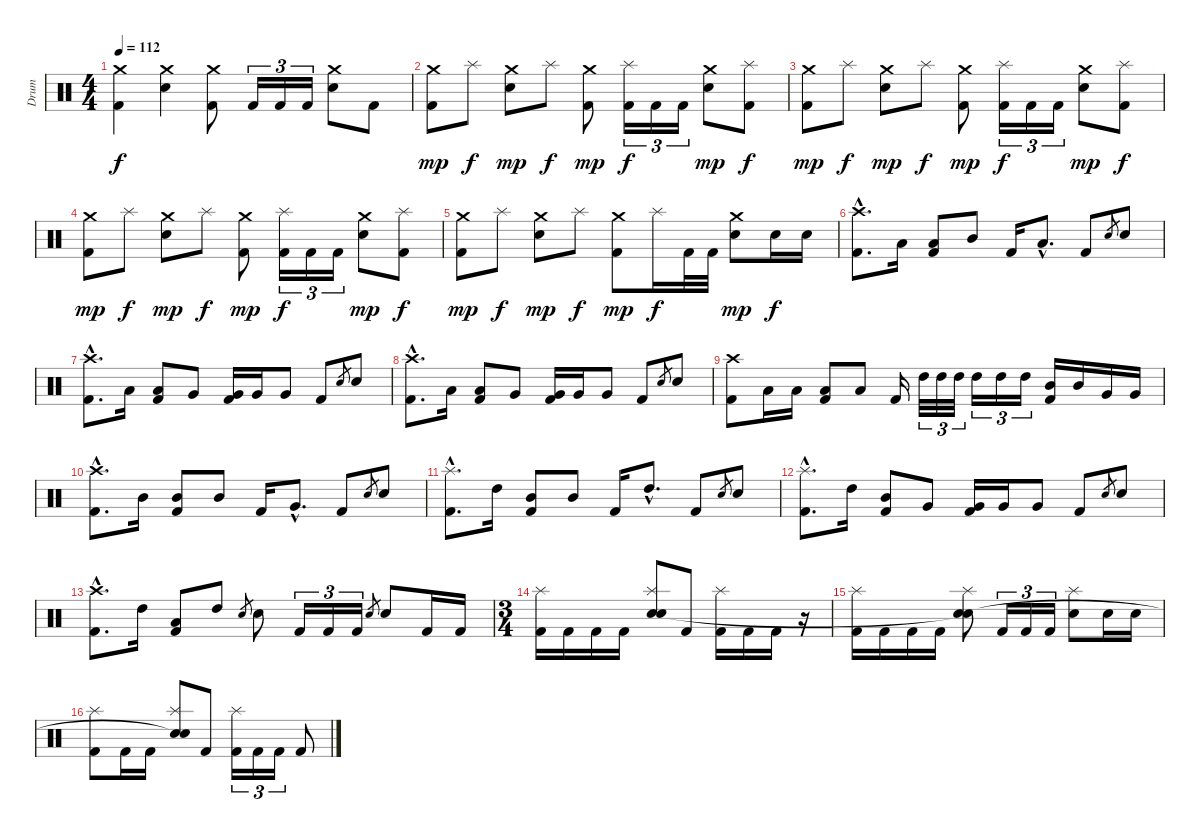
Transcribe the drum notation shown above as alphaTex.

\track ("Drum" "Drum") {instrument percussion}
\staff {score}
\articulation defaults
\ts (4 4)
\tempo 112
\clef neutral
\ks c
("Crash medium (hit)" "Kick (hit) 2").4{dy f} ("Crash medium (hit)" "Electric Snare (hit)").4 ("Crash medium (hit)" "Kick (hit) 2").8 "Kick (hit) 2".16{tu (3 2)} "Kick (hit) 2".16{tu (3 2)} "Kick (hit) 2".16{tu (3 2)} ("Crash medium (hit)" "Electric Snare (hit)").8 "Kick (hit) 2".8 |
("Crash medium (hit)" "Kick (hit) 2").8{dy mp} "Splash (hit)".8{dy f} ("Crash medium (hit)" "Electric Snare (hit)").8{dy mp} "Splash (hit)".8{dy f} ("Crash medium (hit)" "Kick (hit) 2").8{dy mp} ("Splash (hit)" "Kick (hit) 2").16{tu (3 2) dy f} "Kick (hit) 2".16{tu (3 2)} "Kick (hit) 2".16{tu (3 2)} ("Crash medium (hit)" "Electric Snare (hit)").8{dy mp} ("Splash (hit)" "Kick (hit) 2").8{dy f} |
("Crash medium (hit)" "Kick (hit) 2").8{dy mp} "Splash (hit)".8{dy f} ("Crash medium (hit)" "Electric Snare (hit)").8{dy mp} "Splash (hit)".8{dy f} ("Crash medium (hit)" "Kick (hit) 2").8{dy mp} ("Splash (hit)" "Kick (hit) 2").16{tu (3 2) dy f} "Kick (hit) 2".16{tu (3 2)} "Kick (hit) 2".16{tu (3 2)} ("Crash medium (hit)" "Electric Snare (hit)").8{dy mp} ("Splash (hit)" "Kick (hit) 2").8{dy f} |
("Crash medium (hit)" "Kick (hit) 2").8{dy mp} "Splash (hit)".8{dy f} ("Crash medium (hit)" "Electric Snare (hit)").8{dy mp} "Splash (hit)".8{dy f} ("Crash medium (hit)" "Kick (hit) 2").8{dy mp} ("Splash (hit)" "Kick (hit) 2").16{tu (3 2) dy f} "Kick (hit) 2".16{tu (3 2)} "Kick (hit) 2".16{tu (3 2)} ("Crash medium (hit)" "Electric Snare (hit)").8{dy mp} ("Splash (hit)" "Kick (hit) 2").8{dy f} |
("Crash medium (hit)" "Kick (hit) 2").8{dy mp} "Splash (hit)".8{dy f} ("Crash medium (hit)" "Electric Snare (hit)").8{dy mp} "Splash (hit)".8{dy f} ("Crash medium (hit)" "Kick (hit) 2").8{dy mp} "Splash (hit)".16{dy f} "Kick (hit) 2".32 "Kick (hit) 2".32 ("Crash medium (hit)" "Electric Snare (hit)").8{dy mp} "Electric Snare (hit)".16{dy f} "Electric Snare (hit)".16 |
("Crash high (hit)"{hac} "Kick (hit) 2"{hac}).8{d} "Low Tom (hit)".16 ("Low Tom (hit)" "Kick (hit) 2").8 "Mid Tom (hit)".8 "Kick (hit) 2".16 "Low Tom (hit)"{hac}.8{d} "Kick (hit) 2".8 "Electric Snare (hit)".8{gr} "Electric Snare (hit)".8 |
("Crash high (hit)"{hac} "Kick (hit) 2"{hac}).8{d} "Low Tom (hit)".16 ("Low Tom (hit)" "Kick (hit) 2").8 "Very Low Tom (hit)".8 ("Very Low Tom (hit)" "Kick (hit) 2").16 "Very Low Tom (hit)".16 "Very Low Tom (hit)".8 "Kick (hit) 2".8 "Electric Snare (hit)".8{gr} "Electric Snare (hit)".8 |
("Crash high (hit)"{hac} "Kick (hit) 2"{hac}).8{d} "Low Tom (hit)".16 ("Low Tom (hit)" "Kick (hit) 2").8 "Very Low Tom (hit)".8 ("Very Low Tom (hit)" "Kick (hit) 2").16 "Very Low Tom (hit)".16 "Very Low Tom (hit)".8 "Kick (hit) 2".8 "Electric Snare (hit)".8{gr} "Electric Snare (hit)".8 |
("Crash high (hit)" "Kick (hit) 2").8 "Low Tom (hit)".16 "Low Tom (hit)".16 ("Low Tom (hit)" "Kick (hit) 2").8 "Low Tom (hit)".8 "Kick (hit) 2".16 "High Tom (hit)".32{tu (3 2)} "High Tom (hit)".32{tu (3 2)} "High Tom (hit)".32{tu (3 2)} "High Tom (hit)".16{tu (3 2)} "High Tom (hit)".16{tu (3 2)} "High Tom (hit)".16{tu (3 2)} ("Mid Tom (hit)" "Kick (hit) 2").16 "Mid Tom (hit)".16 "Very Low Tom (hit)".16 "Very Low Tom (hit)".16 |
("Crash high (hit)"{hac} "Kick (hit) 2"{hac}).8{d} "Mid Tom (hit)".16 ("Mid Tom (hit)" "Kick (hit) 2").8 "Mid Tom (hit)".8 "Kick (hit) 2".16 "Very Low Tom (hit)"{hac}.8{d} "Kick (hit) 2".8 "Electric Snare (hit)".8{gr} "Electric Snare (hit)".8 |
("Splash (hit)"{hac} "Kick (hit) 2"{hac}).8{d} "High Tom (hit)".16 ("Mid Tom (hit)" "Kick (hit) 2").8 "Mid Tom (hit)".8 "Kick (hit) 2".16 "High Tom (hit)"{hac}.8{d} "Kick (hit) 2".8 "Electric Snare (hit)".8{gr} "Electric Snare (hit)".8 |
("Splash (hit)"{hac} "Kick (hit) 2"{hac}).8{d} "High Tom (hit)".16 ("Mid Tom (hit)" "Kick (hit) 2").8 "Very Low Tom (hit)".8 ("Very Low Tom (hit)" "Kick (hit) 2").16 "Very Low Tom (hit)".16 "Very Low Tom (hit)".8 "Kick (hit) 2".8 "Electric Snare (hit)".8{gr} "Electric Snare (hit)".8 |
("Crash high (hit)"{hac} "Kick (hit) 2"{hac}).8{d} "High Tom (hit)".16 ("Low Tom (hit)" "Kick (hit) 2").8 "High Tom (hit)".8 "Electric Snare (hit)".8{gr} "Electric Snare (hit)".8 "Kick (hit) 2".16{tu (3 2)} "Kick (hit) 2".16{tu (3 2)} "Kick (hit) 2".16{tu (3 2)} "Electric Snare (hit)".8{gr} "Electric Snare (hit)".8 "Kick (hit) 2".16 "Kick (hit) 2".16 |
\ts (3 4)
("Splash (hit)" "Kick (hit) 2").16 "Kick (hit) 2".16 "Kick (hit) 2".16 "Kick (hit) 2".16 ("Splash (hit)" "Electric Snare (hit)" "Snare (hit)").8 "Kick (hit) 2".8 ("Splash (hit)" "Kick (hit) 2").16 "Kick (hit) 2".16 "Kick (hit) 2".16 r.16 |
("Splash (hit)" "Kick (hit) 2").16 "Kick (hit) 2".16 "Kick (hit) 2".16 "Kick (hit) 2".16 ("Splash (hit)" "Electric Snare (hit)" "Snare (hit)"{t}).8 "Kick (hit) 2".16{tu (3 2)} "Kick (hit) 2".16{tu (3 2)} "Kick (hit) 2".16{tu (3 2)} ("Splash (hit)" "Electric Snare (hit)").8 "Electric Snare (hit)".16 "Electric Snare (hit)".16 |
("Splash (hit)" "Kick (hit) 2").8 "Kick (hit) 2".16 "Kick (hit) 2".16 ("Splash (hit)" "Electric Snare (hit)" "Snare (hit)"{t}).8 "Kick (hit) 2".8 ("Splash (hit)" "Kick (hit) 2").16{tu (3 2)} "Kick (hit) 2".16{tu (3 2)} "Kick (hit) 2".16{tu (3 2)} "Kick (hit) 2".8
